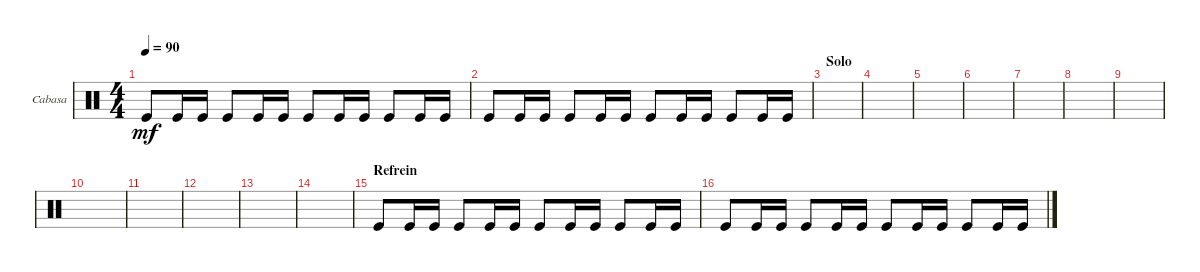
\defaultSystemsLayout 4
\bracketExtendMode groupsimilarinstruments
\firstSystemTrackNameOrientation horizontal
\otherSystemsTrackNameOrientation horizontal
\track ("Cabasa" "Cabasa") {instrument percussion}
\staff {score}
\articulation defaults
\ts (4 4)
\tempo 90
\clef neutral
\scale
0.333333
\ks c "Kick (hit)".8{dy mf} "Kick (hit)".16 "Kick (hit)".16 "Kick (hit)".8 "Kick (hit)".16 "Kick (hit)".16 "Kick (hit)".8 "Kick (hit)".16 "Kick (hit)".16 "Kick (hit)".8 "Kick (hit)".16 "Kick (hit)".16
|
\scale
0.333333 "Kick (hit)".8 "Kick (hit)".16 "Kick (hit)".16 "Kick (hit)".8 "Kick (hit)".16 "Kick (hit)".16 "Kick (hit)".8 "Kick (hit)".16 "Kick (hit)".16 "Kick (hit)".8 "Kick (hit)".16 "Kick (hit)".16 |
\section ("" "Solo")
\scale
0.333333 |
\scale
0.333333 |
\scale
0.333333 |
\scale
0.333333 |
\scale
0.333333 |
\scale
0.333333 |
\scale
0.333333 |
\scale
0.333333 |
\scale
0.333333 |
\scale
0.333333 |
\scale
0.333333 |
\scale
0.333333 |
\section ("" "Refrein")
\scale
0.333333 "Kick (hit)".8 "Kick (hit)".16 "Kick (hit)".16 "Kick (hit)".8 "Kick (hit)".16 "Kick (hit)".16 "Kick (hit)".8 "Kick (hit)".16 "Kick (hit)".16 "Kick (hit)".8 "Kick (hit)".16 "Kick (hit)".16 |
\scale
0.333333 "Kick (hit)".8 "Kick (hit)".16 "Kick (hit)".16 "Kick (hit)".8 "Kick (hit)".16 "Kick (hit)".16 "Kick (hit)".8 "Kick (hit)".16 "Kick (hit)".16 "Kick (hit)".8 "Kick (hit)".16 "Kick (hit)".16
